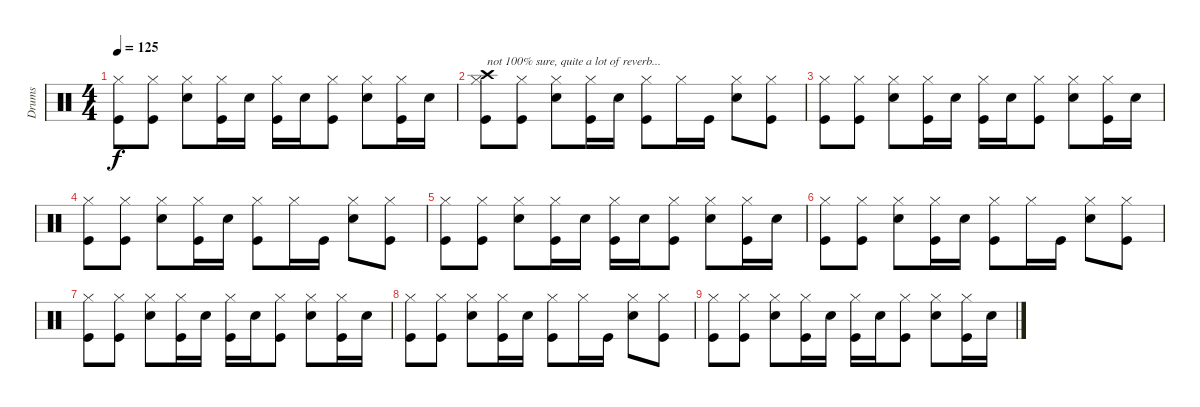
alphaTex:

\track ("Drums" "Drums") {instrument percussion}
\staff {score}
\articulation defaults
\ts (4 4)
\tempo 125
\clef neutral
\ks c
("Hi-Hat (closed)" "Kick (hit)").8{dy f} ("Hi-Hat (closed)" "Kick (hit)").8 ("Hi-Hat (closed)" "Electric Snare (hit)").8 ("Hi-Hat (closed)" "Kick (hit)").16 "Electric Snare (hit)".16 ("Hi-Hat (closed)" "Kick (hit)").16 "Electric Snare (hit)".16 ("Hi-Hat (closed)" "Kick (hit)").8 ("Hi-Hat (closed)" "Electric Snare (hit)").8 ("Hi-Hat (closed)" "Kick (hit)").16 "Electric Snare (hit)".16 |
("Hi-Hat (closed)" "Crash high (hit)" "Kick (hit)").8{txt "not 100% sure, quite a lot of reverb..."} ("Hi-Hat (closed)" "Kick (hit)").8 ("Hi-Hat (closed)" "Electric Snare (hit)").8 ("Hi-Hat (closed)" "Kick (hit)").16 "Electric Snare (hit)".16 ("Hi-Hat (closed)" "Kick (hit)").8 "Hi-Hat (closed)".16 "Kick (hit)".16 ("Hi-Hat (closed)" "Electric Snare (hit)").8 ("Hi-Hat (closed)" "Kick (hit)").8 |
("Hi-Hat (closed)" "Kick (hit)").8 ("Hi-Hat (closed)" "Kick (hit)").8 ("Hi-Hat (closed)" "Electric Snare (hit)").8 ("Hi-Hat (closed)" "Kick (hit)").16 "Electric Snare (hit)".16 ("Hi-Hat (closed)" "Kick (hit)").16 "Electric Snare (hit)".16 ("Hi-Hat (closed)" "Kick (hit)").8 ("Hi-Hat (closed)" "Electric Snare (hit)").8 ("Hi-Hat (closed)" "Kick (hit)").16 "Electric Snare (hit)".16 |
("Hi-Hat (closed)" "Kick (hit)").8 ("Hi-Hat (closed)" "Kick (hit)").8 ("Hi-Hat (closed)" "Electric Snare (hit)").8 ("Hi-Hat (closed)" "Kick (hit)").16 "Electric Snare (hit)".16 ("Hi-Hat (closed)" "Kick (hit)").8 "Hi-Hat (closed)".16 "Kick (hit)".16 ("Hi-Hat (closed)" "Electric Snare (hit)").8 ("Hi-Hat (closed)" "Kick (hit)").8 |
("Hi-Hat (closed)" "Kick (hit)").8 ("Hi-Hat (closed)" "Kick (hit)").8 ("Hi-Hat (closed)" "Electric Snare (hit)").8 ("Hi-Hat (closed)" "Kick (hit)").16 "Electric Snare (hit)".16 ("Hi-Hat (closed)" "Kick (hit)").16 "Electric Snare (hit)".16 ("Hi-Hat (closed)" "Kick (hit)").8 ("Hi-Hat (closed)" "Electric Snare (hit)").8 ("Hi-Hat (closed)" "Kick (hit)").16 "Electric Snare (hit)".16 |
("Hi-Hat (closed)" "Kick (hit)").8 ("Hi-Hat (closed)" "Kick (hit)").8 ("Hi-Hat (closed)" "Electric Snare (hit)").8 ("Hi-Hat (closed)" "Kick (hit)").16 "Electric Snare (hit)".16 ("Hi-Hat (closed)" "Kick (hit)").8 "Hi-Hat (closed)".16 "Kick (hit)".16 ("Hi-Hat (closed)" "Electric Snare (hit)").8 ("Hi-Hat (closed)" "Kick (hit)").8 |
("Hi-Hat (closed)" "Kick (hit)").8 ("Hi-Hat (closed)" "Kick (hit)").8 ("Hi-Hat (closed)" "Electric Snare (hit)").8 ("Hi-Hat (closed)" "Kick (hit)").16 "Electric Snare (hit)".16 ("Hi-Hat (closed)" "Kick (hit)").16 "Electric Snare (hit)".16 ("Hi-Hat (closed)" "Kick (hit)").8 ("Hi-Hat (closed)" "Electric Snare (hit)").8 ("Hi-Hat (closed)" "Kick (hit)").16 "Electric Snare (hit)".16 |
("Hi-Hat (closed)" "Kick (hit)").8 ("Hi-Hat (closed)" "Kick (hit)").8 ("Hi-Hat (closed)" "Electric Snare (hit)").8 ("Hi-Hat (closed)" "Kick (hit)").16 "Electric Snare (hit)".16 ("Hi-Hat (closed)" "Kick (hit)").8 "Hi-Hat (closed)".16 "Kick (hit)".16 ("Hi-Hat (closed)" "Electric Snare (hit)").8 ("Hi-Hat (closed)" "Kick (hit)").8 |
("Hi-Hat (closed)" "Kick (hit)").8 ("Hi-Hat (closed)" "Kick (hit)").8 ("Hi-Hat (closed)" "Electric Snare (hit)").8 ("Hi-Hat (closed)" "Kick (hit)").16 "Electric Snare (hit)".16 ("Hi-Hat (closed)" "Kick (hit)").16 "Electric Snare (hit)".16 ("Hi-Hat (closed)" "Kick (hit)").8 ("Hi-Hat (closed)" "Electric Snare (hit)").8 ("Hi-Hat (closed)" "Kick (hit)").16 "Electric Snare (hit)".16
